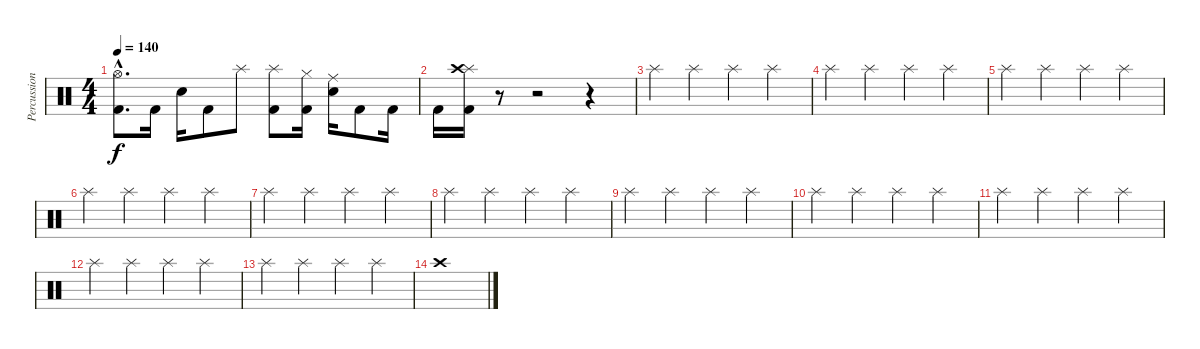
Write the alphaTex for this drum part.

\track ("Percussion" "Percussion") {instrument percussion}
\staff {score}
\articulation defaults
\ts (4 4)
\tempo 140
\clef neutral
\ks c
("Hi-Hat (open)"{hac} "Kick (hit) 2"{hac}).8{d dy f} "Kick (hit) 2".16 "Electric Snare (hit)".16 "Kick (hit) 2".8 "Splash (hit)".8 ("Splash (hit)" "Kick (hit) 2").8 ("Hi-Hat (closed)" "Kick (hit) 2").16 ("Ride (middle)" "Electric Snare (hit)").16 "Kick (hit) 2".8 "Kick (hit) 2".16 |
"Kick (hit) 2".16 ("Splash (hit)" "Crash high (hit)" "Kick (hit) 2").16 r.8 r.2 r.4 |
"Splash (hit)".4{volume 5} "Splash (hit)".4 "Splash (hit)".4 "Splash (hit)".4 |
"Splash (hit)".4 "Splash (hit)".4 "Splash (hit)".4 "Splash (hit)".4 |
"Splash (hit)".4 "Splash (hit)".4 "Splash (hit)".4 "Splash (hit)".4 |
"Splash (hit)".4 "Splash (hit)".4 "Splash (hit)".4 "Splash (hit)".4 |
"Splash (hit)".4 "Splash (hit)".4 "Splash (hit)".4 "Splash (hit)".4 |
"Splash (hit)".4 "Splash (hit)".4 "Splash (hit)".4 "Splash (hit)".4 |
"Splash (hit)".4 "Splash (hit)".4 "Splash (hit)".4 "Splash (hit)".4 |
"Splash (hit)".4 "Splash (hit)".4 "Splash (hit)".4 "Splash (hit)".4 |
"Splash (hit)".4 "Splash (hit)".4 "Splash (hit)".4 "Splash (hit)".4 |
"Splash (hit)".4 "Splash (hit)".4 "Splash (hit)".4 "Splash (hit)".4 |
"Splash (hit)".4 "Splash (hit)".4 "Splash (hit)".4 "Splash (hit)".4 |
"Crash high (hit)".1
